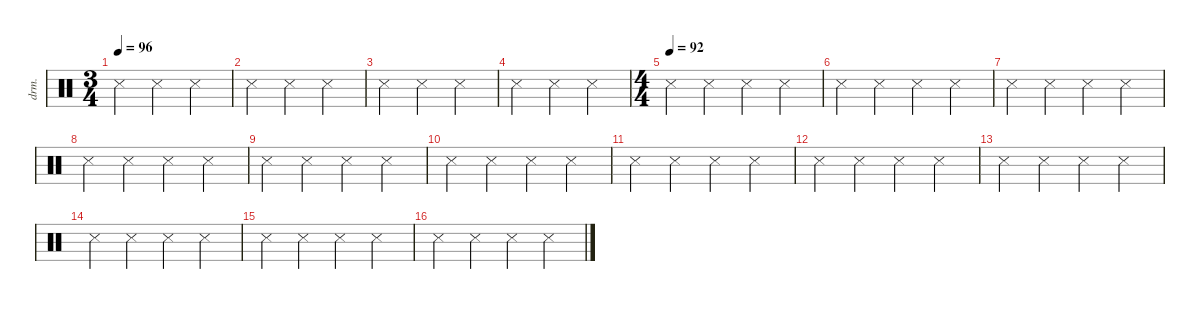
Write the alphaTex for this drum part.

\defaultSystemsLayout 4
\hideDynamics
\bracketExtendMode nobrackets
\otherSystemsTrackNameOrientation horizontal
\track ("Drumkit" "drm.") {instrument percussion}
\staff {score}
\articulation defaults
\ts (3 4)
\tempo 96
\clef neutral
\ks c "Metronome (hit)".4{dy mf} "Metronome (hit)".4 "Metronome (hit)".4
|
"Metronome (hit)".4 "Metronome (hit)".4 "Metronome (hit)".4 |
"Metronome (hit)".4 "Metronome (hit)".4 "Metronome (hit)".4 |
"Metronome (hit)".4 "Metronome (hit)".4 "Metronome (hit)".4 |
\ts (4 4)
\beaming (8 2 2 2 2)
\tempo (92)
"Metronome (hit)".4 "Metronome (hit)".4 "Metronome (hit)".4 "Metronome (hit)".4 |
"Metronome (hit)".4 "Metronome (hit)".4 "Metronome (hit)".4 "Metronome (hit)".4 |
"Metronome (hit)".4 "Metronome (hit)".4 "Metronome (hit)".4 "Metronome (hit)".4 |
"Metronome (hit)".4 "Metronome (hit)".4 "Metronome (hit)".4 "Metronome (hit)".4 |
"Metronome (hit)".4 "Metronome (hit)".4 "Metronome (hit)".4 "Metronome (hit)".4 |
"Metronome (hit)".4 "Metronome (hit)".4 "Metronome (hit)".4 "Metronome (hit)".4 |
"Metronome (hit)".4 "Metronome (hit)".4 "Metronome (hit)".4 "Metronome (hit)".4 |
"Metronome (hit)".4 "Metronome (hit)".4 "Metronome (hit)".4 "Metronome (hit)".4 |
"Metronome (hit)".4 "Metronome (hit)".4 "Metronome (hit)".4 "Metronome (hit)".4 |
"Metronome (hit)".4 "Metronome (hit)".4 "Metronome (hit)".4 "Metronome (hit)".4 |
"Metronome (hit)".4 "Metronome (hit)".4 "Metronome (hit)".4 "Metronome (hit)".4 |
"Metronome (hit)".4 "Metronome (hit)".4 "Metronome (hit)".4 "Metronome (hit)".4
